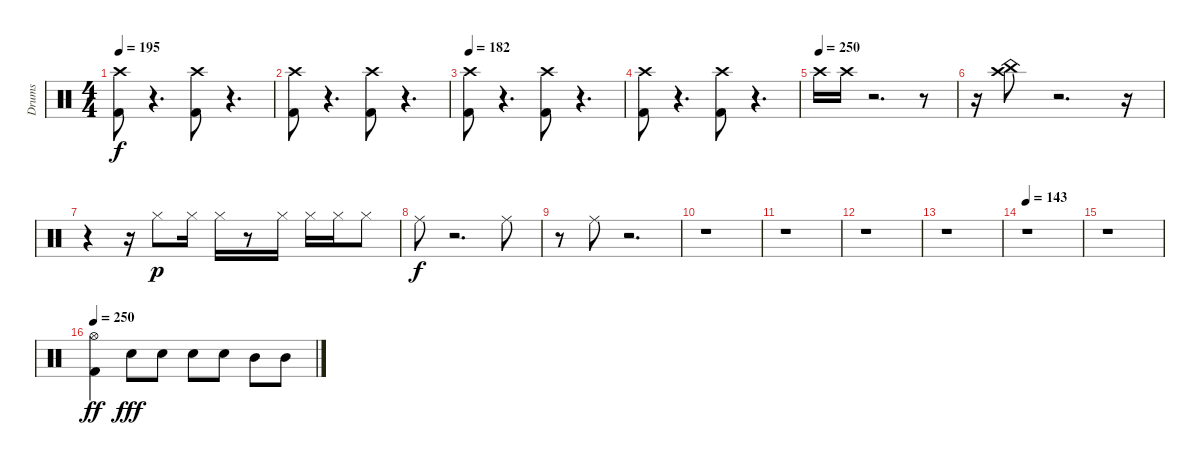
\track ("Drums" "Drums") {instrument percussion}
\staff {score}
\articulation defaults
\ts (4 4)
\tempo 195
\clef neutral
\ks c
("Crash high (hit)" "Kick (hit) 2").8{dy f} r.4{d} ("Crash high (hit)" "Kick (hit) 2").8 r.4{d} |
("Crash high (hit)" "Kick (hit) 2").8 r.4{d} ("Crash high (hit)" "Kick (hit) 2").8 r.4{d} |
\tempo 182
("Crash high (hit)" "Kick (hit) 2").8 r.4{d} ("Crash high (hit)" "Kick (hit) 2").8 r.4{d} |
("Crash high (hit)" "Kick (hit) 2").8 r.4{d} ("Crash high (hit)" "Kick (hit) 2").8 r.4{d} |
\tempo (250)
"Crash high (hit)".16 "Crash high (hit)".16 r.2{d} r.8 |
r.16 ("Crash high (hit)" "China (hit)").8 r.2{d} r.16 |
r.4 r.16 "Hi-Hat (closed)".8{dy p} "Hi-Hat (closed)".16 "Hi-Hat (closed)".16 r.8 "Hi-Hat (closed)".16 "Hi-Hat (closed)".16 "Hi-Hat (closed)".16 "Hi-Hat (closed)".8 |
"Ride (middle)".8{dy f} r.2{d} "Ride (middle)".8 |
r.8 "Ride (middle)".8 r.2{d} |
r.1 |
r.1 |
r.1 |
r.1 |
\tempo 143
r.1 |
r.1 |
\tempo 250
("Hi-Hat (open)" "Kick (hit) 2").4{dy ff} "Snare (hit) 2".8{dy fff} "Snare (hit) 2".8 "Snare (hit) 2".8 "Snare (hit) 2".8 "Mid Tom (hit)".8 "Mid Tom (hit)".8
